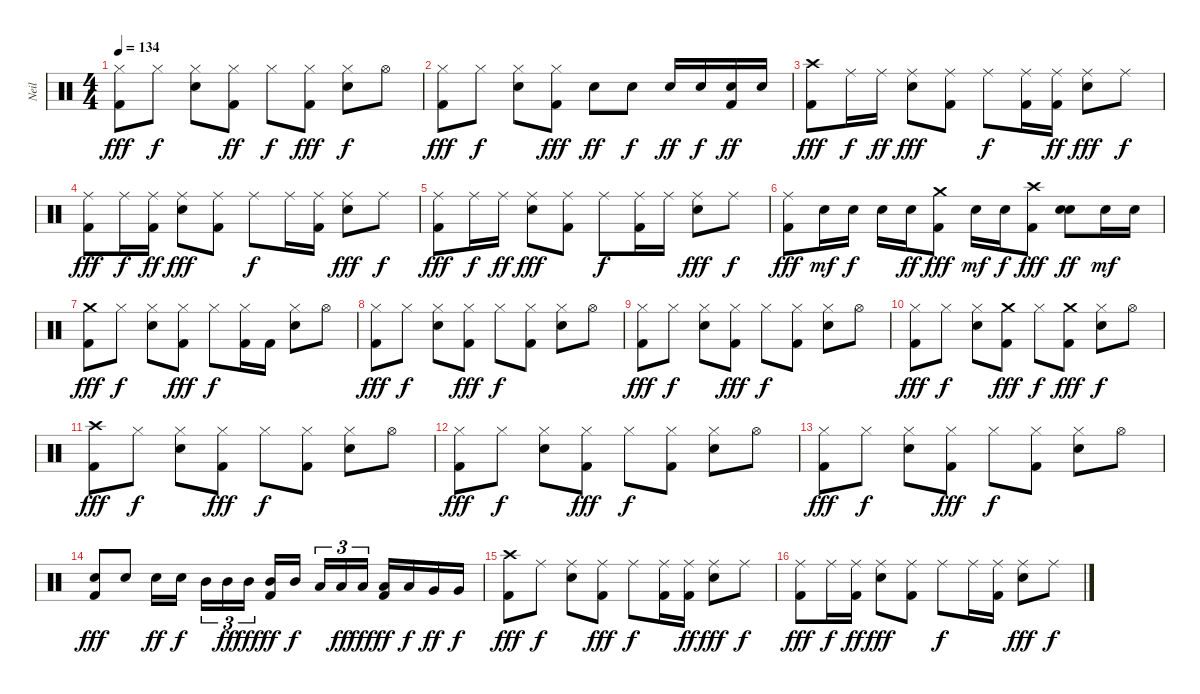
\track ("Neil" "Neil") {instrument percussion}
\staff {score}
\articulation defaults
\ts (4 4)
\tempo 134
\clef neutral
\ks c
("Hi-Hat (closed)" "Kick (hit) 2").8{dy fff} "Hi-Hat (closed)".8{dy f} ("Hi-Hat (closed)" "Snare (hit) 2").8 ("Hi-Hat (closed)" "Kick (hit) 2").8{dy ff} "Hi-Hat (closed)".8{dy f} ("Hi-Hat (closed)" "Kick (hit) 2").8{dy fff} ("Hi-Hat (closed)" "Snare (hit) 2").8{dy f} "Hi-Hat (open)".8 |
("Hi-Hat (closed)" "Kick (hit) 2").8{dy fff} "Hi-Hat (closed)".8{dy f} ("Hi-Hat (closed)" "Snare (hit) 2").8 ("Hi-Hat (closed)" "Kick (hit) 2").8{dy fff} "Snare (hit) 2".8{dy ff} "Snare (hit) 2".8{dy f} "Snare (hit) 2".16{dy ff} "Snare (hit) 2".16{dy f} ("Kick (hit) 2" "Snare (hit) 2").16{dy ff} "Snare (hit) 2".16 |
("Crash high (hit)" "Kick (hit) 2").8{dy fff} "Ride (middle)".16{dy f} "Ride (middle)".16{dy ff} ("Ride (middle)" "Snare (hit) 2").8{dy fff} ("Ride (middle)" "Kick (hit) 2").8 "Ride (middle)".8{dy f} ("Ride (middle)" "Kick (hit) 2").16 ("Ride (middle)" "Kick (hit) 2").16{dy ff} ("Ride (middle)" "Snare (hit) 2").8{dy fff} "Ride (middle)".8{dy f} |
("Kick (hit) 2" "Ride (middle)").8{dy fff} "Ride (middle)".16{dy f} ("Kick (hit) 2" "Ride (middle)").16{dy ff} ("Snare (hit) 2" "Ride (middle)").8{dy fff} ("Ride (middle)" "Kick (hit) 2").8 "Ride (middle)".8{dy f} "Ride (middle)".16 ("Ride (middle)" "Kick (hit) 2").16 ("Ride (middle)" "Snare (hit) 2").8{dy fff} "Ride (middle)".8{dy f} |
("Kick (hit) 2" "Ride (middle)").8{dy fff} "Ride (middle)".16{dy f} "Ride (middle)".16{dy ff} ("Snare (hit) 2" "Ride (middle)").8{dy fff} ("Ride (middle)" "Kick (hit) 2").8 "Ride (middle)".8{dy f} ("Kick (hit) 2" "Ride (middle)").16 "Ride (middle)".16 ("Ride (middle)" "Snare (hit) 2").8{dy fff} "Ride (middle)".8{dy f} |
("Ride (middle)" "Kick (hit) 2").8{dy fff} "Snare (hit) 2".16{dy mf} "Snare (hit) 2".16{dy f} "Snare (hit) 2".16 "Snare (hit) 2".16{dy ff} ("Crash medium (hit)" "Kick (hit) 2").8{dy fff} "Snare (hit) 2".16{dy mf} "Snare (hit) 2".16{dy f} ("Kick (hit) 2" "Crash high (hit)").8{dy fff} ("Snare (hit) 2" "Snare (hit) 2").8{dy ff} "Snare (hit) 2".16{dy mf} "Snare (hit) 2".16 |
("Crash medium (hit)" "Kick (hit) 2").8{dy fff} "Hi-Hat (closed)".8{dy f} ("Hi-Hat (closed)" "Snare (hit) 2").8 ("Hi-Hat (closed)" "Kick (hit) 2").8{dy fff} "Hi-Hat (closed)".8{dy f} ("Hi-Hat (closed)" "Kick (hit) 2").16 "Kick (hit) 2".16 ("Hi-Hat (closed)" "Snare (hit) 2").8 "Hi-Hat (open)".8 |
("Hi-Hat (closed)" "Kick (hit) 2").8{dy fff} "Hi-Hat (closed)".8{dy f} ("Hi-Hat (closed)" "Snare (hit) 2").8 ("Hi-Hat (closed)" "Kick (hit) 2").8{dy fff} "Hi-Hat (closed)".8{dy f} ("Hi-Hat (closed)" "Kick (hit) 2").8 ("Hi-Hat (closed)" "Snare (hit) 2").8 "Hi-Hat (open)".8 |
("Hi-Hat (closed)" "Kick (hit) 2").8{dy fff} "Hi-Hat (closed)".8{dy f} ("Hi-Hat (closed)" "Snare (hit) 2").8 ("Hi-Hat (closed)" "Kick (hit) 2").8{dy fff} "Hi-Hat (closed)".8{dy f} ("Hi-Hat (closed)" "Kick (hit) 2").8 ("Hi-Hat (closed)" "Snare (hit) 2").8 "Hi-Hat (open)".8 |
("Hi-Hat (closed)" "Kick (hit) 2").8{dy fff} "Hi-Hat (closed)".8{dy f} ("Hi-Hat (closed)" "Snare (hit) 2").8 ("Crash medium (hit)" "Kick (hit) 2").8{dy fff} "Hi-Hat (closed)".8{dy f} ("Crash medium (hit)" "Kick (hit) 2").8{dy fff} ("Hi-Hat (closed)" "Snare (hit) 2").8{dy f} "Hi-Hat (open)".8 |
("Crash high (hit)" "Kick (hit) 2").8{dy fff} "Hi-Hat (closed)".8{dy f} ("Hi-Hat (closed)" "Snare (hit) 2").8 ("Hi-Hat (closed)" "Kick (hit) 2").8{dy fff} "Hi-Hat (closed)".8{dy f} ("Hi-Hat (closed)" "Kick (hit) 2").8 ("Hi-Hat (closed)" "Snare (hit) 2").8 "Hi-Hat (open)".8 |
("Hi-Hat (closed)" "Kick (hit) 2").8{dy fff} "Hi-Hat (closed)".8{dy f} ("Hi-Hat (closed)" "Snare (hit) 2").8 ("Hi-Hat (closed)" "Kick (hit) 2").8{dy fff} "Hi-Hat (closed)".8{dy f} ("Hi-Hat (closed)" "Kick (hit) 2").8 ("Hi-Hat (closed)" "Snare (hit) 2").8 "Hi-Hat (open)".8 |
("Hi-Hat (closed)" "Kick (hit) 2").8{dy fff} "Hi-Hat (closed)".8{dy f} ("Hi-Hat (closed)" "Snare (hit) 2").8 ("Hi-Hat (closed)" "Kick (hit) 2").8{dy fff} "Hi-Hat (closed)".8{dy f} ("Hi-Hat (closed)" "Kick (hit) 2").8 ("Hi-Hat (closed)" "Snare (hit) 2").8 "Hi-Hat (open)".8 |
("Kick (hit) 2" "Snare (hit) 2").8{dy fff} "Snare (hit) 2".8 "Snare (hit) 2".16{dy ff} "Snare (hit) 2".16{dy f beam splitsecondary} "Mid Tom (hit)".16{tu (3 2)} "Mid Tom (hit)".16{tu (3 2) dy ff} "Mid Tom (hit)".16{tu (3 2) dy fff} ("Kick (hit) 2" "Mid Tom (hit)").16{dy ff} "Mid Tom (hit)".16{dy f beam splitsecondary} "Low Tom (hit)".16{tu (3 2)} "Low Tom (hit)".16{tu (3 2) dy ff} "Low Tom (hit)".16{tu (3 2) dy fff} ("Kick (hit) 2" "Low Tom (hit)").16{dy ff} "Low Tom (hit)".16{dy f} "Very Low Tom (hit)".16{dy ff} "Very Low Tom (hit)".16{dy f} |
("Crash high (hit)" "Kick (hit) 2").8{dy fff} "Ride (middle)".8{dy f} ("Ride (middle)" "Snare (hit) 2").8 ("Ride (middle)" "Kick (hit) 2").8{dy fff} "Ride (middle)".8{dy f} ("Ride (middle)" "Kick (hit) 2").16 ("Ride (middle)" "Kick (hit) 2").16{dy ff} ("Ride (middle)" "Snare (hit) 2").8{dy fff} "Ride (middle)".8{dy f} |
("Kick (hit) 2" "Ride (middle)").8{dy fff} "Ride (middle)".16{dy f} ("Kick (hit) 2" "Ride (middle)").16{dy ff} ("Snare (hit) 2" "Ride (middle)").8{dy fff} ("Ride (middle)" "Kick (hit) 2").8 "Ride (middle)".8{dy f} "Ride (middle)".16 ("Ride (middle)" "Kick (hit) 2").16 ("Ride (middle)" "Snare (hit) 2").8{dy fff} "Ride (middle)".8{dy f}
